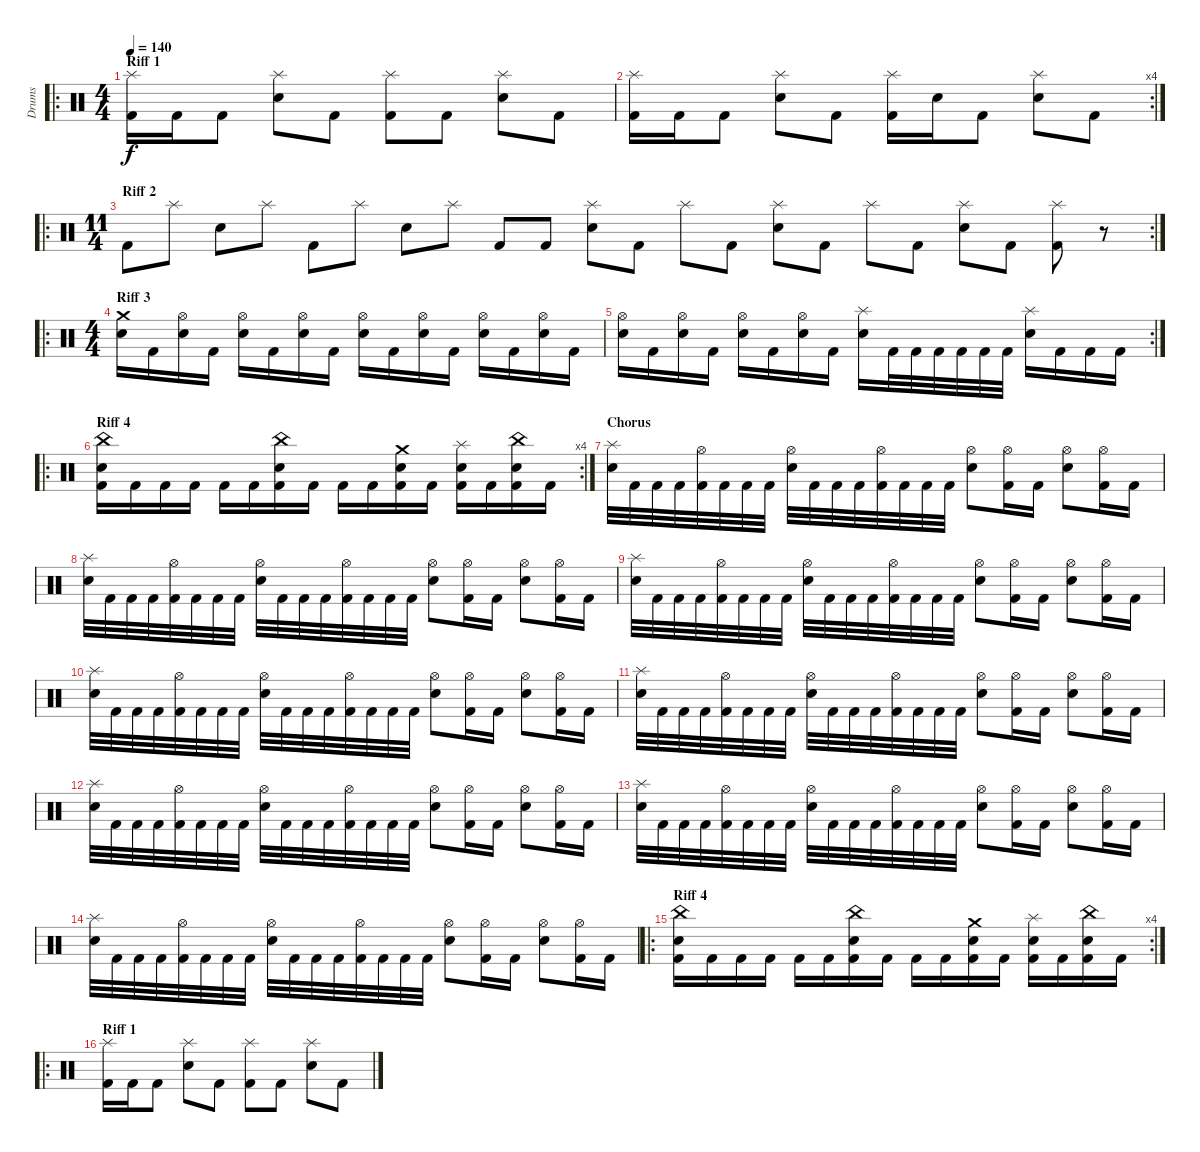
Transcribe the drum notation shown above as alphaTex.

\track ("Drums" "Drums") {instrument percussion}
\staff {score}
\articulation defaults
\ro
\ts (4 4)
\section ("" "Riff 1")
\tempo 140
\clef neutral
\ks c
("Kick (hit) 2" "Splash (hit)").16{dy f} "Kick (hit) 2".16 "Kick (hit) 2".8 ("Snare (hit) 2" "Splash (hit)").8 "Kick (hit) 2".8 ("Kick (hit) 2" "Splash (hit)").8 "Kick (hit) 2".8 ("Snare (hit) 2" "Splash (hit)").8 "Kick (hit) 2".8 |
\rc 4
("Kick (hit) 2" "Splash (hit)").16 "Kick (hit) 2".16 "Kick (hit) 2".8 ("Snare (hit) 2" "Splash (hit)").8 "Kick (hit) 2".8 ("Kick (hit) 2" "Splash (hit)").16 "Snare (hit) 2".16 "Kick (hit) 2".8 ("Snare (hit) 2" "Splash (hit)").8 "Kick (hit) 2".8 |
\ro
\rc 2
\ts (11 4)
\section ("" "Riff 2")
"Kick (hit) 2".8 "Splash (hit)".8 "Snare (hit) 2".8 "Splash (hit)".8 "Kick (hit) 2".8 "Splash (hit)".8 "Snare (hit) 2".8 "Splash (hit)".8 "Kick (hit) 2".8 "Kick (hit) 2".8 ("Snare (hit) 2" "Splash (hit)").8 "Kick (hit) 2".8 "Splash (hit)".8 "Kick (hit) 2".8 ("Snare (hit) 2" "Splash (hit)").8 "Kick (hit) 2".8 "Splash (hit)".8 "Kick (hit) 2".8 ("Snare (hit) 2" "Splash (hit)").8 "Kick (hit) 2".8 ("Kick (hit) 2" "Splash (hit)").8 r.8 |
\ro
\ts (4 4)
\section ("" "Riff 3")
("Snare (hit) 2" "Crash medium (hit)").16 "Kick (hit) 2".16 ("Snare (hit) 2" "Hi-Hat (open)").16 "Kick (hit) 2".16 ("Snare (hit) 2" "Hi-Hat (open)").16 "Kick (hit) 2".16 ("Snare (hit) 2" "Hi-Hat (open)").16 "Kick (hit) 2".16 ("Snare (hit) 2" "Hi-Hat (open)").16 "Kick (hit) 2".16 ("Snare (hit) 2" "Hi-Hat (open)").16 "Kick (hit) 2".16 ("Snare (hit) 2" "Hi-Hat (open)").16 "Kick (hit) 2".16 ("Snare (hit) 2" "Hi-Hat (open)").16 "Kick (hit) 2".16 |
\rc 2
("Snare (hit) 2" "Hi-Hat (open)").16 "Kick (hit) 2".16 ("Snare (hit) 2" "Hi-Hat (open)").16 "Kick (hit) 2".16 ("Snare (hit) 2" "Hi-Hat (open)").16 "Kick (hit) 2".16 ("Snare (hit) 2" "Hi-Hat (open)").16 "Kick (hit) 2".16 ("Snare (hit) 2" "Splash (hit)").16 "Kick (hit) 2".32 "Kick (hit) 2".32 "Kick (hit) 2".32 "Kick (hit) 2".32 "Kick (hit) 2".32 "Kick (hit) 2".32 ("Snare (hit) 2" "Splash (hit)").16 "Kick (hit) 2".16 "Kick (hit) 2".16 "Kick (hit) 2".16 |
\ro
\rc 4
\section ("" "Riff 4")
("Kick (hit) 2" "Snare (hit) 2" "China (hit)").16 "Kick (hit) 2".16 "Kick (hit) 2".16 "Kick (hit) 2".16 "Kick (hit) 2".16 "Kick (hit) 2".16 ("Kick (hit) 2" "Snare (hit) 2" "China (hit)").16 "Kick (hit) 2".16 "Kick (hit) 2".16 "Kick (hit) 2".16 ("Kick (hit) 2" "Snare (hit) 2" "Crash medium (hit)").16 "Kick (hit) 2".16 ("Kick (hit) 2" "Snare (hit) 2" "Splash (hit)").16 "Kick (hit) 2".16 ("Kick (hit) 2" "Snare (hit) 2" "China (hit)").16 "Kick (hit) 2".16 |
\section ("" "Chorus")
("Snare (hit) 2" "Splash (hit)").32 "Kick (hit) 2".32 "Kick (hit) 2".32 "Kick (hit) 2".32 ("Kick (hit) 2" "Hi-Hat (open)").32 "Kick (hit) 2".32 "Kick (hit) 2".32 "Kick (hit) 2".32 ("Snare (hit) 2" "Hi-Hat (open)").32 "Kick (hit) 2".32 "Kick (hit) 2".32 "Kick (hit) 2".32 ("Kick (hit) 2" "Hi-Hat (open)").32 "Kick (hit) 2".32 "Kick (hit) 2".32 "Kick (hit) 2".32 ("Snare (hit) 2" "Hi-Hat (open)").8 ("Kick (hit) 2" "Hi-Hat (open)").16 "Kick (hit) 2".16 ("Snare (hit) 2" "Hi-Hat (open)").8 ("Kick (hit) 2" "Hi-Hat (open)").16 "Kick (hit) 2".16 |
("Snare (hit) 2" "Splash (hit)").32 "Kick (hit) 2".32 "Kick (hit) 2".32 "Kick (hit) 2".32 ("Kick (hit) 2" "Hi-Hat (open)").32 "Kick (hit) 2".32 "Kick (hit) 2".32 "Kick (hit) 2".32 ("Snare (hit) 2" "Hi-Hat (open)").32 "Kick (hit) 2".32 "Kick (hit) 2".32 "Kick (hit) 2".32 ("Kick (hit) 2" "Hi-Hat (open)").32 "Kick (hit) 2".32 "Kick (hit) 2".32 "Kick (hit) 2".32 ("Snare (hit) 2" "Hi-Hat (open)").8 ("Kick (hit) 2" "Hi-Hat (open)").16 "Kick (hit) 2".16 ("Snare (hit) 2" "Hi-Hat (open)").8 ("Kick (hit) 2" "Hi-Hat (open)").16 "Kick (hit) 2".16 |
("Snare (hit) 2" "Splash (hit)").32 "Kick (hit) 2".32 "Kick (hit) 2".32 "Kick (hit) 2".32 ("Kick (hit) 2" "Hi-Hat (open)").32 "Kick (hit) 2".32 "Kick (hit) 2".32 "Kick (hit) 2".32 ("Snare (hit) 2" "Hi-Hat (open)").32 "Kick (hit) 2".32 "Kick (hit) 2".32 "Kick (hit) 2".32 ("Kick (hit) 2" "Hi-Hat (open)").32 "Kick (hit) 2".32 "Kick (hit) 2".32 "Kick (hit) 2".32 ("Snare (hit) 2" "Hi-Hat (open)").8 ("Kick (hit) 2" "Hi-Hat (open)").16 "Kick (hit) 2".16 ("Snare (hit) 2" "Hi-Hat (open)").8 ("Kick (hit) 2" "Hi-Hat (open)").16 "Kick (hit) 2".16 |
("Snare (hit) 2" "Splash (hit)").32 "Kick (hit) 2".32 "Kick (hit) 2".32 "Kick (hit) 2".32 ("Kick (hit) 2" "Hi-Hat (open)").32 "Kick (hit) 2".32 "Kick (hit) 2".32 "Kick (hit) 2".32 ("Snare (hit) 2" "Hi-Hat (open)").32 "Kick (hit) 2".32 "Kick (hit) 2".32 "Kick (hit) 2".32 ("Kick (hit) 2" "Hi-Hat (open)").32 "Kick (hit) 2".32 "Kick (hit) 2".32 "Kick (hit) 2".32 ("Snare (hit) 2" "Hi-Hat (open)").8 ("Kick (hit) 2" "Hi-Hat (open)").16 "Kick (hit) 2".16 ("Snare (hit) 2" "Hi-Hat (open)").8 ("Kick (hit) 2" "Hi-Hat (open)").16 "Kick (hit) 2".16 |
("Snare (hit) 2" "Splash (hit)").32 "Kick (hit) 2".32 "Kick (hit) 2".32 "Kick (hit) 2".32 ("Kick (hit) 2" "Hi-Hat (open)").32 "Kick (hit) 2".32 "Kick (hit) 2".32 "Kick (hit) 2".32 ("Snare (hit) 2" "Hi-Hat (open)").32 "Kick (hit) 2".32 "Kick (hit) 2".32 "Kick (hit) 2".32 ("Kick (hit) 2" "Hi-Hat (open)").32 "Kick (hit) 2".32 "Kick (hit) 2".32 "Kick (hit) 2".32 ("Snare (hit) 2" "Hi-Hat (open)").8 ("Kick (hit) 2" "Hi-Hat (open)").16 "Kick (hit) 2".16 ("Snare (hit) 2" "Hi-Hat (open)").8 ("Kick (hit) 2" "Hi-Hat (open)").16 "Kick (hit) 2".16 |
("Snare (hit) 2" "Splash (hit)").32 "Kick (hit) 2".32 "Kick (hit) 2".32 "Kick (hit) 2".32 ("Kick (hit) 2" "Hi-Hat (open)").32 "Kick (hit) 2".32 "Kick (hit) 2".32 "Kick (hit) 2".32 ("Snare (hit) 2" "Hi-Hat (open)").32 "Kick (hit) 2".32 "Kick (hit) 2".32 "Kick (hit) 2".32 ("Kick (hit) 2" "Hi-Hat (open)").32 "Kick (hit) 2".32 "Kick (hit) 2".32 "Kick (hit) 2".32 ("Snare (hit) 2" "Hi-Hat (open)").8 ("Kick (hit) 2" "Hi-Hat (open)").16 "Kick (hit) 2".16 ("Snare (hit) 2" "Hi-Hat (open)").8 ("Kick (hit) 2" "Hi-Hat (open)").16 "Kick (hit) 2".16 |
("Snare (hit) 2" "Splash (hit)").32 "Kick (hit) 2".32 "Kick (hit) 2".32 "Kick (hit) 2".32 ("Kick (hit) 2" "Hi-Hat (open)").32 "Kick (hit) 2".32 "Kick (hit) 2".32 "Kick (hit) 2".32 ("Snare (hit) 2" "Hi-Hat (open)").32 "Kick (hit) 2".32 "Kick (hit) 2".32 "Kick (hit) 2".32 ("Kick (hit) 2" "Hi-Hat (open)").32 "Kick (hit) 2".32 "Kick (hit) 2".32 "Kick (hit) 2".32 ("Snare (hit) 2" "Hi-Hat (open)").8 ("Kick (hit) 2" "Hi-Hat (open)").16 "Kick (hit) 2".16 ("Snare (hit) 2" "Hi-Hat (open)").8 ("Kick (hit) 2" "Hi-Hat (open)").16 "Kick (hit) 2".16 |
("Snare (hit) 2" "Splash (hit)").32 "Kick (hit) 2".32 "Kick (hit) 2".32 "Kick (hit) 2".32 ("Kick (hit) 2" "Hi-Hat (open)").32 "Kick (hit) 2".32 "Kick (hit) 2".32 "Kick (hit) 2".32 ("Snare (hit) 2" "Hi-Hat (open)").32 "Kick (hit) 2".32 "Kick (hit) 2".32 "Kick (hit) 2".32 ("Kick (hit) 2" "Hi-Hat (open)").32 "Kick (hit) 2".32 "Kick (hit) 2".32 "Kick (hit) 2".32 ("Snare (hit) 2" "Hi-Hat (open)").8 ("Kick (hit) 2" "Hi-Hat (open)").16 "Kick (hit) 2".16 ("Snare (hit) 2" "Hi-Hat (open)").8 ("Kick (hit) 2" "Hi-Hat (open)").16 "Kick (hit) 2".16 |
\ro
\rc 4
\section ("" "Riff 4")
("Kick (hit) 2" "Snare (hit) 2" "China (hit)").16 "Kick (hit) 2".16 "Kick (hit) 2".16 "Kick (hit) 2".16 "Kick (hit) 2".16 "Kick (hit) 2".16 ("Kick (hit) 2" "Snare (hit) 2" "China (hit)").16 "Kick (hit) 2".16 "Kick (hit) 2".16 "Kick (hit) 2".16 ("Kick (hit) 2" "Snare (hit) 2" "Crash medium (hit)").16 "Kick (hit) 2".16 ("Kick (hit) 2" "Snare (hit) 2" "Splash (hit)").16 "Kick (hit) 2".16 ("Kick (hit) 2" "Snare (hit) 2" "China (hit)").16 "Kick (hit) 2".16 |
\ro
\section ("" "Riff 1")
("Kick (hit) 2" "Splash (hit)").16 "Kick (hit) 2".16 "Kick (hit) 2".8 ("Snare (hit) 2" "Splash (hit)").8 "Kick (hit) 2".8 ("Kick (hit) 2" "Splash (hit)").8 "Kick (hit) 2".8 ("Snare (hit) 2" "Splash (hit)").8 "Kick (hit) 2".8
